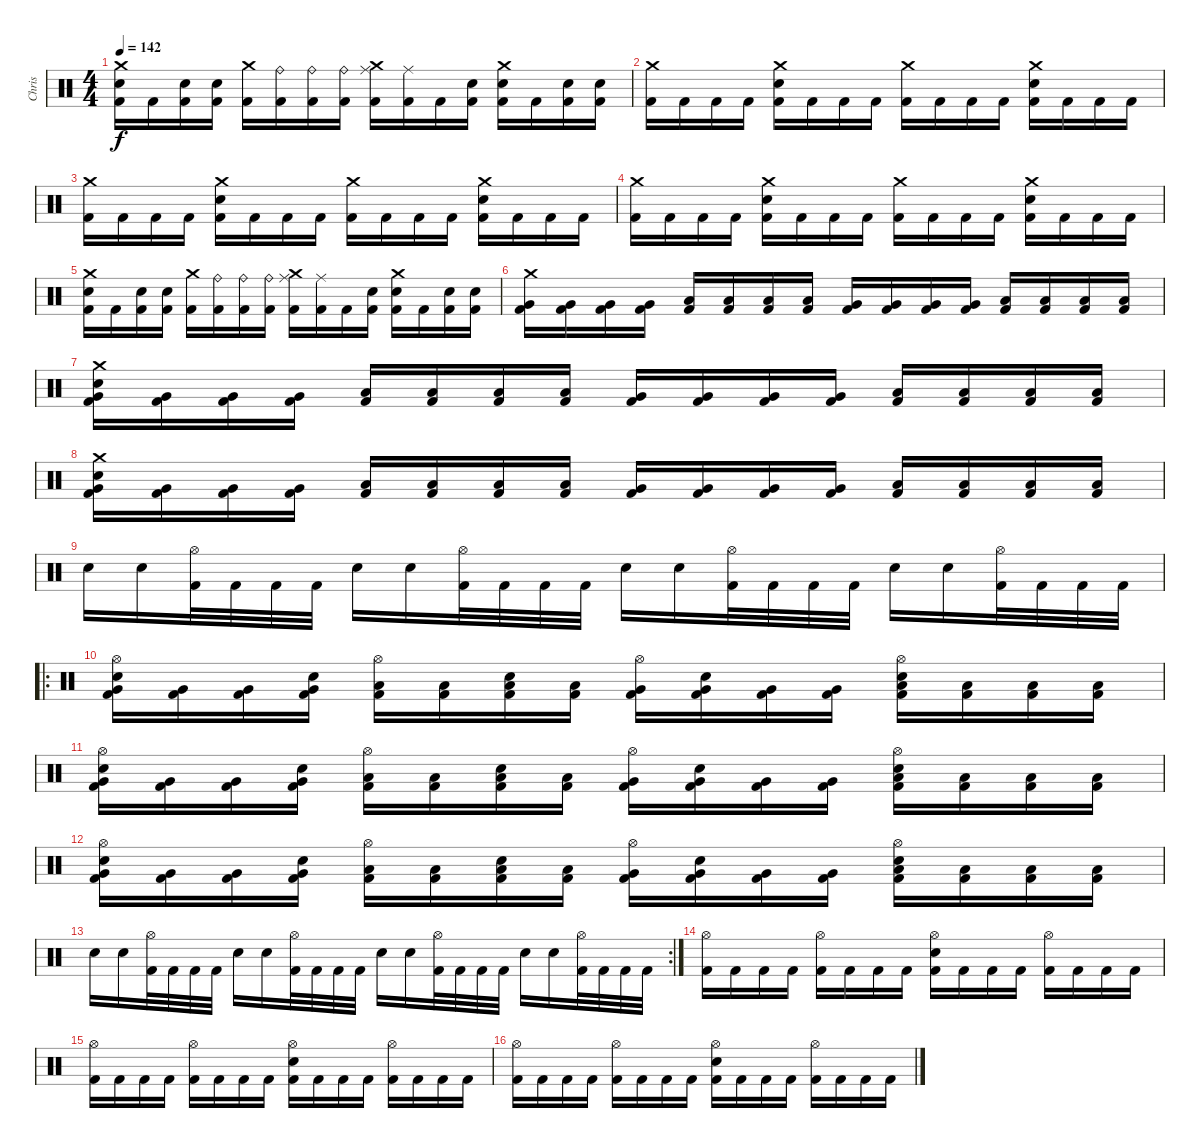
\track ("Chris" "Chris") {instrument percussion}
\staff {score}
\articulation defaults
\ts (4 4)
\tempo 142
\clef neutral
\ks c
("Crash medium (hit)" "Snare (hit) 2" "Kick (hit) 2").16{dy f} "Kick (hit) 2".16 ("Snare (hit) 2" "Kick (hit) 2").16 ("Snare (hit) 2" "Kick (hit) 2").16 ("Crash medium (hit)" "Kick (hit) 2").16 ("Ride (bell)" "Kick (hit) 2").16 ("Ride (bell)" "Kick (hit) 2").16 ("Ride (bell)" "Kick (hit) 2").16 ("Crash medium (hit)" "Ride (middle)" "Kick (hit) 2").16 ("Ride (middle)" "Kick (hit) 2").16 "Kick (hit) 2".16 ("Snare (hit) 2" "Kick (hit) 2").16 ("Crash medium (hit)" "Snare (hit) 2" "Kick (hit) 2").16 "Kick (hit) 2".16 ("Snare (hit) 2" "Kick (hit) 2").16 ("Snare (hit) 2" "Kick (hit) 2").16 |
("Crash medium (hit)" "Kick (hit) 2").16 "Kick (hit) 2".16 "Kick (hit) 2".16 "Kick (hit) 2".16 ("Crash medium (hit)" "Snare (hit) 2" "Kick (hit) 2").16 "Kick (hit) 2".16 "Kick (hit) 2".16 "Kick (hit) 2".16 ("Crash medium (hit)" "Kick (hit) 2").16 "Kick (hit) 2".16 "Kick (hit) 2".16 "Kick (hit) 2".16 ("Crash medium (hit)" "Snare (hit) 2" "Kick (hit) 2").16 "Kick (hit) 2".16 "Kick (hit) 2".16 "Kick (hit) 2".16 |
("Crash medium (hit)" "Kick (hit) 2").16 "Kick (hit) 2".16 "Kick (hit) 2".16 "Kick (hit) 2".16 ("Crash medium (hit)" "Snare (hit) 2" "Kick (hit) 2").16 "Kick (hit) 2".16 "Kick (hit) 2".16 "Kick (hit) 2".16 ("Crash medium (hit)" "Kick (hit) 2").16 "Kick (hit) 2".16 "Kick (hit) 2".16 "Kick (hit) 2".16 ("Crash medium (hit)" "Snare (hit) 2" "Kick (hit) 2").16 "Kick (hit) 2".16 "Kick (hit) 2".16 "Kick (hit) 2".16 |
("Crash medium (hit)" "Kick (hit) 2").16 "Kick (hit) 2".16 "Kick (hit) 2".16 "Kick (hit) 2".16 ("Crash medium (hit)" "Snare (hit) 2" "Kick (hit) 2").16 "Kick (hit) 2".16 "Kick (hit) 2".16 "Kick (hit) 2".16 ("Crash medium (hit)" "Kick (hit) 2").16 "Kick (hit) 2".16 "Kick (hit) 2".16 "Kick (hit) 2".16 ("Crash medium (hit)" "Snare (hit) 2" "Kick (hit) 2").16 "Kick (hit) 2".16 "Kick (hit) 2".16 "Kick (hit) 2".16 |
("Crash medium (hit)" "Snare (hit) 2" "Kick (hit) 2").16 "Kick (hit) 2".16 ("Snare (hit) 2" "Kick (hit) 2").16 ("Snare (hit) 2" "Kick (hit) 2").16 ("Crash medium (hit)" "Kick (hit) 2").16 ("Ride (bell)" "Kick (hit) 2").16 ("Ride (bell)" "Kick (hit) 2").16 ("Ride (bell)" "Kick (hit) 2").16 ("Crash medium (hit)" "Ride (middle)" "Kick (hit) 2").16 ("Ride (middle)" "Kick (hit) 2").16 "Kick (hit) 2".16 ("Snare (hit) 2" "Kick (hit) 2").16 ("Crash medium (hit)" "Snare (hit) 2" "Kick (hit) 2").16 "Kick (hit) 2".16 ("Snare (hit) 2" "Kick (hit) 2").16 ("Snare (hit) 2" "Kick (hit) 2").16 |
("Crash medium (hit)" "Very Low Tom (hit)" "Kick (hit) 2").16 ("Very Low Tom (hit)" "Kick (hit) 2").16 ("Very Low Tom (hit)" "Kick (hit) 2").16 ("Very Low Tom (hit)" "Kick (hit) 2").16 ("Low Floor Tom (hit)" "Kick (hit) 2").16 ("Low Floor Tom (hit)" "Kick (hit) 2").16 ("Low Floor Tom (hit)" "Kick (hit) 2").16 ("Low Floor Tom (hit)" "Kick (hit) 2").16 ("Very Low Tom (hit)" "Kick (hit) 2").16 ("Very Low Tom (hit)" "Kick (hit) 2").16 ("Very Low Tom (hit)" "Kick (hit) 2").16 ("Very Low Tom (hit)" "Kick (hit) 2").16 ("Low Floor Tom (hit)" "Kick (hit) 2").16 ("Low Floor Tom (hit)" "Kick (hit) 2").16 ("Low Floor Tom (hit)" "Kick (hit) 2").16 ("Low Floor Tom (hit)" "Kick (hit) 2").16 |
("Crash medium (hit)" "Snare (hit) 2" "Very Low Tom (hit)" "Kick (hit) 2").16 ("Very Low Tom (hit)" "Kick (hit) 2").16 ("Very Low Tom (hit)" "Kick (hit) 2").16 ("Very Low Tom (hit)" "Kick (hit) 2").16 ("Low Floor Tom (hit)" "Kick (hit) 2").16 ("Low Floor Tom (hit)" "Kick (hit) 2").16 ("Low Floor Tom (hit)" "Kick (hit) 2").16 ("Low Floor Tom (hit)" "Kick (hit) 2").16 ("Very Low Tom (hit)" "Kick (hit) 2").16 ("Very Low Tom (hit)" "Kick (hit) 2").16 ("Very Low Tom (hit)" "Kick (hit) 2").16 ("Very Low Tom (hit)" "Kick (hit) 2").16 ("Low Floor Tom (hit)" "Kick (hit) 2").16 ("Low Floor Tom (hit)" "Kick (hit) 2").16 ("Low Floor Tom (hit)" "Kick (hit) 2").16 ("Low Floor Tom (hit)" "Kick (hit) 2").16 |
("Crash medium (hit)" "Snare (hit) 2" "Very Low Tom (hit)" "Kick (hit) 2").16 ("Very Low Tom (hit)" "Kick (hit) 2").16 ("Very Low Tom (hit)" "Kick (hit) 2").16 ("Very Low Tom (hit)" "Kick (hit) 2").16 ("Low Floor Tom (hit)" "Kick (hit) 2").16 ("Low Floor Tom (hit)" "Kick (hit) 2").16 ("Low Floor Tom (hit)" "Kick (hit) 2").16 ("Low Floor Tom (hit)" "Kick (hit) 2").16 ("Very Low Tom (hit)" "Kick (hit) 2").16 ("Very Low Tom (hit)" "Kick (hit) 2").16 ("Very Low Tom (hit)" "Kick (hit) 2").16 ("Very Low Tom (hit)" "Kick (hit) 2").16 ("Low Floor Tom (hit)" "Kick (hit) 2").16 ("Low Floor Tom (hit)" "Kick (hit) 2").16 ("Low Floor Tom (hit)" "Kick (hit) 2").16 ("Low Floor Tom (hit)" "Kick (hit) 2").16 |
"Snare (hit) 2".16 "Snare (hit) 2".16 ("Hi-Hat (open)" "Kick (hit) 2").32 "Kick (hit) 2".32 "Kick (hit) 2".32 "Kick (hit) 2".32 "Snare (hit) 2".16 "Snare (hit) 2".16 ("Hi-Hat (open)" "Kick (hit) 2").32 "Kick (hit) 2".32 "Kick (hit) 2".32 "Kick (hit) 2".32 "Snare (hit) 2".16 "Snare (hit) 2".16 ("Hi-Hat (open)" "Kick (hit) 2").32 "Kick (hit) 2".32 "Kick (hit) 2".32 "Kick (hit) 2".32 "Snare (hit) 2".16 "Snare (hit) 2".16 ("Hi-Hat (open)" "Kick (hit) 2").32 "Kick (hit) 2".32 "Kick (hit) 2".32 "Kick (hit) 2".32 |
\ro
("Hi-Hat (open)" "Snare (hit) 2" "Very Low Tom (hit)" "Kick (hit) 2").16 ("Very Low Tom (hit)" "Kick (hit) 2").16 ("Very Low Tom (hit)" "Kick (hit) 2").16 ("Snare (hit) 2" "Very Low Tom (hit)" "Kick (hit) 2").16 ("Hi-Hat (open)" "Low Floor Tom (hit)" "Kick (hit) 2").16 ("Low Floor Tom (hit)" "Kick (hit) 2").16 ("Snare (hit) 2" "Low Floor Tom (hit)" "Kick (hit) 2").16 ("Low Floor Tom (hit)" "Kick (hit) 2").16 ("Hi-Hat (open)" "Very Low Tom (hit)" "Kick (hit) 2").16 ("Snare (hit) 2" "Very Low Tom (hit)" "Kick (hit) 2").16 ("Very Low Tom (hit)" "Kick (hit) 2").16 ("Very Low Tom (hit)" "Kick (hit) 2").16 ("Hi-Hat (open)" "Snare (hit) 2" "Low Floor Tom (hit)" "Kick (hit) 2").16 ("Low Floor Tom (hit)" "Kick (hit) 2").16 ("Low Floor Tom (hit)" "Kick (hit) 2").16 ("Low Floor Tom (hit)" "Kick (hit) 2").16 |
("Hi-Hat (open)" "Snare (hit) 2" "Very Low Tom (hit)" "Kick (hit) 2").16 ("Very Low Tom (hit)" "Kick (hit) 2").16 ("Very Low Tom (hit)" "Kick (hit) 2").16 ("Snare (hit) 2" "Very Low Tom (hit)" "Kick (hit) 2").16 ("Hi-Hat (open)" "Low Floor Tom (hit)" "Kick (hit) 2").16 ("Low Floor Tom (hit)" "Kick (hit) 2").16 ("Snare (hit) 2" "Low Floor Tom (hit)" "Kick (hit) 2").16 ("Low Floor Tom (hit)" "Kick (hit) 2").16 ("Hi-Hat (open)" "Very Low Tom (hit)" "Kick (hit) 2").16 ("Snare (hit) 2" "Very Low Tom (hit)" "Kick (hit) 2").16 ("Very Low Tom (hit)" "Kick (hit) 2").16 ("Very Low Tom (hit)" "Kick (hit) 2").16 ("Hi-Hat (open)" "Snare (hit) 2" "Low Floor Tom (hit)" "Kick (hit) 2").16 ("Low Floor Tom (hit)" "Kick (hit) 2").16 ("Low Floor Tom (hit)" "Kick (hit) 2").16 ("Low Floor Tom (hit)" "Kick (hit) 2").16 |
("Hi-Hat (open)" "Snare (hit) 2" "Very Low Tom (hit)" "Kick (hit) 2").16 ("Very Low Tom (hit)" "Kick (hit) 2").16 ("Very Low Tom (hit)" "Kick (hit) 2").16 ("Snare (hit) 2" "Very Low Tom (hit)" "Kick (hit) 2").16 ("Hi-Hat (open)" "Low Floor Tom (hit)" "Kick (hit) 2").16 ("Low Floor Tom (hit)" "Kick (hit) 2").16 ("Snare (hit) 2" "Low Floor Tom (hit)" "Kick (hit) 2").16 ("Low Floor Tom (hit)" "Kick (hit) 2").16 ("Hi-Hat (open)" "Very Low Tom (hit)" "Kick (hit) 2").16 ("Snare (hit) 2" "Very Low Tom (hit)" "Kick (hit) 2").16 ("Very Low Tom (hit)" "Kick (hit) 2").16 ("Very Low Tom (hit)" "Kick (hit) 2").16 ("Hi-Hat (open)" "Snare (hit) 2" "Low Floor Tom (hit)" "Kick (hit) 2").16 ("Low Floor Tom (hit)" "Kick (hit) 2").16 ("Low Floor Tom (hit)" "Kick (hit) 2").16 ("Low Floor Tom (hit)" "Kick (hit) 2").16 |
\rc 2 "Snare (hit) 2".16 "Snare (hit) 2".16
("Hi-Hat (open)" "Kick (hit) 2").32 "Kick (hit) 2".32 "Kick (hit) 2".32 "Kick (hit) 2".32 "Snare (hit) 2".16 "Snare (hit) 2".16 ("Hi-Hat (open)" "Kick (hit) 2").32 "Kick (hit) 2".32 "Kick (hit) 2".32 "Kick (hit) 2".32 "Snare (hit) 2".16 "Snare (hit) 2".16 ("Hi-Hat (open)" "Kick (hit) 2").32 "Kick (hit) 2".32 "Kick (hit) 2".32 "Kick (hit) 2".32 "Snare (hit) 2".16 "Snare (hit) 2".16 ("Hi-Hat (open)" "Kick (hit) 2").32 "Kick (hit) 2".32 "Kick (hit) 2".32 "Kick (hit) 2".32 |
("Hi-Hat (open)" "Kick (hit) 2").16 "Kick (hit) 2".16 "Kick (hit) 2".16 "Kick (hit) 2".16 ("Hi-Hat (open)" "Kick (hit) 2").16 "Kick (hit) 2".16 "Kick (hit) 2".16 "Kick (hit) 2".16 ("Hi-Hat (open)" "Snare (hit) 2" "Kick (hit) 2").16 "Kick (hit) 2".16 "Kick (hit) 2".16 "Kick (hit) 2".16 ("Hi-Hat (open)" "Kick (hit) 2").16 "Kick (hit) 2".16 "Kick (hit) 2".16 "Kick (hit) 2".16 |
("Hi-Hat (open)" "Kick (hit) 2").16 "Kick (hit) 2".16 "Kick (hit) 2".16 "Kick (hit) 2".16 ("Hi-Hat (open)" "Kick (hit) 2").16 "Kick (hit) 2".16 "Kick (hit) 2".16 "Kick (hit) 2".16 ("Hi-Hat (open)" "Snare (hit) 2" "Kick (hit) 2").16 "Kick (hit) 2".16 "Kick (hit) 2".16 "Kick (hit) 2".16 ("Hi-Hat (open)" "Kick (hit) 2").16 "Kick (hit) 2".16 "Kick (hit) 2".16 "Kick (hit) 2".16 |
("Hi-Hat (open)" "Kick (hit) 2").16 "Kick (hit) 2".16 "Kick (hit) 2".16 "Kick (hit) 2".16 ("Hi-Hat (open)" "Kick (hit) 2").16 "Kick (hit) 2".16 "Kick (hit) 2".16 "Kick (hit) 2".16 ("Hi-Hat (open)" "Snare (hit) 2" "Kick (hit) 2").16 "Kick (hit) 2".16 "Kick (hit) 2".16 "Kick (hit) 2".16 ("Hi-Hat (open)" "Kick (hit) 2").16 "Kick (hit) 2".16 "Kick (hit) 2".16 "Kick (hit) 2".16
